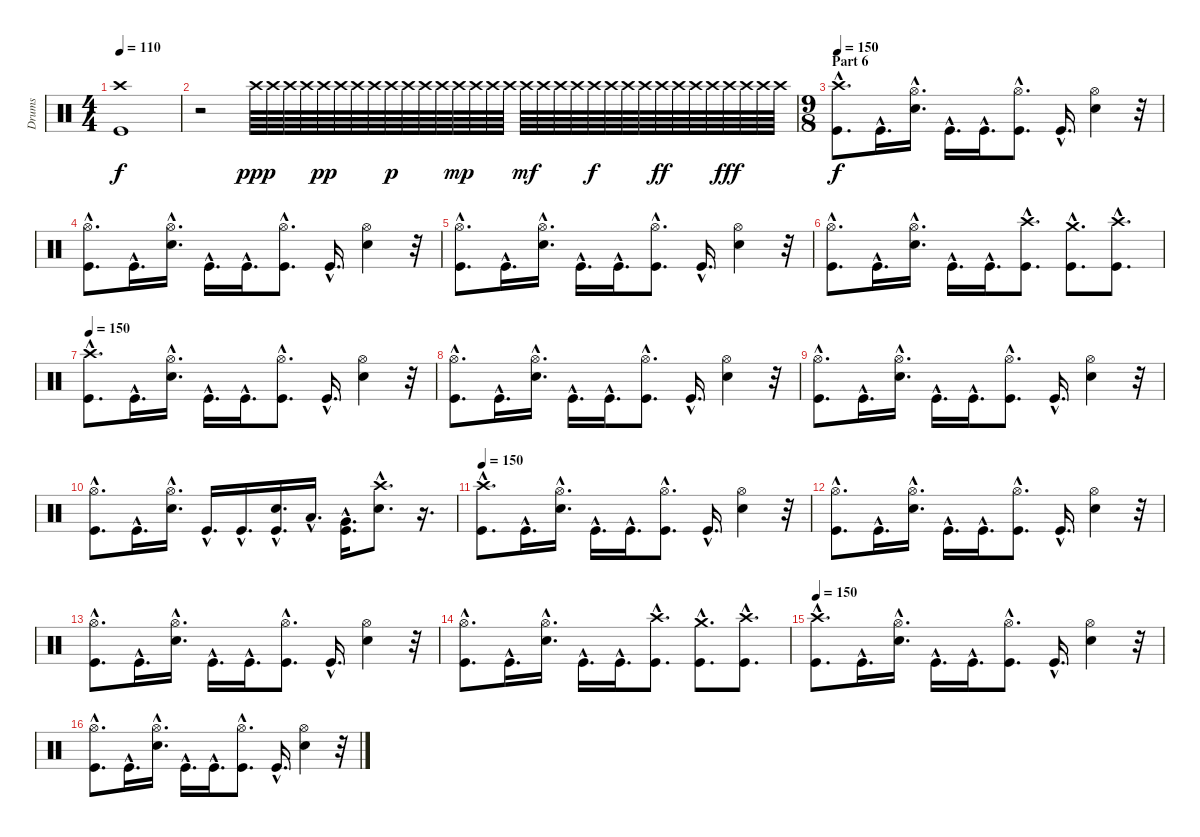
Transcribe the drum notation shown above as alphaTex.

\track ("Drums" "Drums") {instrument percussion}
\staff {score}
\articulation defaults
\ts (4 4)
\tempo 110
\clef neutral
\ks c
("Crash high (hit)" "Kick (hit)").1{dy f} |
r.2 "Crash high (hit)".64{dy ppp} "Crash high (hit)".64 "Crash high (hit)".64 "Crash high (hit)".64 "Crash high (hit)".64{dy pp} "Crash high (hit)".64 "Crash high (hit)".64 "Crash high (hit)".64 "Crash high (hit)".64{dy p} "Crash high (hit)".64 "Crash high (hit)".64 "Crash high (hit)".64 "Crash high (hit)".64{dy mp} "Crash high (hit)".64 "Crash high (hit)".64 "Crash high (hit)".64 "Crash high (hit)".64{dy mf} "Crash high (hit)".64 "Crash high (hit)".64 "Crash high (hit)".64 "Crash high (hit)".64{dy f} "Crash high (hit)".64 "Crash high (hit)".64 "Crash high (hit)".64 "Crash high (hit)".64{dy ff} "Crash high (hit)".64 "Crash high (hit)".64 "Crash high (hit)".64 "Crash high (hit)".64{dy fff} "Crash high (hit)".64 "Crash high (hit)".64 "Crash high (hit)".64 |
\ts (9 8)
\section ("" "Part 6")
\tempo 150
("Crash high (hit)"{hac} "Kick (hit)"{hac}).8{d dy f} "Kick (hit)"{hac}.16{d} ("Hi-Hat (open)"{hac} "Snare (hit) 2"{hac}).16{d} "Kick (hit)"{hac}.16{d} "Kick (hit)"{hac}.16{d} ("Hi-Hat (open)"{hac} "Kick (hit)"{hac}).8{d} "Kick (hit)"{hac}.16{d} ("Hi-Hat (open)" "Snare (hit) 2").4 r.32 |
("Hi-Hat (open)"{hac} "Kick (hit)"{hac}).8{d} "Kick (hit)"{hac}.16{d} ("Hi-Hat (open)"{hac} "Snare (hit) 2"{hac}).16{d} "Kick (hit)"{hac}.16{d} "Kick (hit)"{hac}.16{d} ("Hi-Hat (open)"{hac} "Kick (hit)"{hac}).8{d} "Kick (hit)"{hac}.16{d} ("Hi-Hat (open)" "Snare (hit) 2").4 r.32 |
("Hi-Hat (open)"{hac} "Kick (hit)"{hac}).8{d} "Kick (hit)"{hac}.16{d} ("Hi-Hat (open)"{hac} "Snare (hit) 2"{hac}).16{d} "Kick (hit)"{hac}.16{d} "Kick (hit)"{hac}.16{d} ("Hi-Hat (open)"{hac} "Kick (hit)"{hac}).8{d} "Kick (hit)"{hac}.16{d} ("Hi-Hat (open)" "Snare (hit) 2").4 r.32 |
("Hi-Hat (open)"{hac} "Kick (hit)"{hac}).8{d} "Kick (hit)"{hac}.16{d} ("Hi-Hat (open)"{hac} "Snare (hit) 2"{hac}).16{d} "Kick (hit)"{hac}.16{d} "Kick (hit)"{hac}.16{d} ("Crash high (hit)"{hac} "Kick (hit)"{hac}).8{d} ("Crash medium (hit)"{hac} "Kick (hit)"{hac}).8{d} ("Crash high (hit)"{hac} "Kick (hit)"{hac}).8{d} |
\tempo 150
("Crash high (hit)"{hac} "Kick (hit)"{hac}).8{d} "Kick (hit)"{hac}.16{d} ("Hi-Hat (open)"{hac} "Snare (hit) 2"{hac}).16{d} "Kick (hit)"{hac}.16{d} "Kick (hit)"{hac}.16{d} ("Hi-Hat (open)"{hac} "Kick (hit)"{hac}).8{d} "Kick (hit)"{hac}.16{d} ("Hi-Hat (open)" "Snare (hit) 2").4 r.32 |
("Hi-Hat (open)"{hac} "Kick (hit)"{hac}).8{d} "Kick (hit)"{hac}.16{d} ("Hi-Hat (open)"{hac} "Snare (hit) 2"{hac}).16{d} "Kick (hit)"{hac}.16{d} "Kick (hit)"{hac}.16{d} ("Hi-Hat (open)"{hac} "Kick (hit)"{hac}).8{d} "Kick (hit)"{hac}.16{d} ("Hi-Hat (open)" "Snare (hit) 2").4 r.32 |
("Hi-Hat (open)"{hac} "Kick (hit)"{hac}).8{d} "Kick (hit)"{hac}.16{d} ("Hi-Hat (open)"{hac} "Snare (hit) 2"{hac}).16{d} "Kick (hit)"{hac}.16{d} "Kick (hit)"{hac}.16{d} ("Hi-Hat (open)"{hac} "Kick (hit)"{hac}).8{d} "Kick (hit)"{hac}.16{d} ("Hi-Hat (open)" "Snare (hit) 2").4 r.32 |
("Hi-Hat (open)"{hac} "Kick (hit)"{hac}).8{d} "Kick (hit)"{hac}.16{d} ("Hi-Hat (open)"{hac} "Snare (hit) 2"{hac}).16{d} "Kick (hit)"{hac}.16{d} "Kick (hit)"{hac}.16{d} ("Snare (hit) 2"{hac} "Kick (hit)"{hac}).16{d} "Low Tom (hit)"{hac}.16{d} ("Very Low Tom (hit)"{hac} "Kick (hit)"{hac}).16{d} ("Crash high (hit)"{hac} "Snare (hit) 2"{hac}).8{d} r.16{d} |
\tempo 150
("Crash high (hit)"{hac} "Kick (hit)"{hac}).8{d} "Kick (hit)"{hac}.16{d} ("Hi-Hat (open)"{hac} "Snare (hit) 2"{hac}).16{d} "Kick (hit)"{hac}.16{d} "Kick (hit)"{hac}.16{d} ("Hi-Hat (open)"{hac} "Kick (hit)"{hac}).8{d} "Kick (hit)"{hac}.16{d} ("Hi-Hat (open)" "Snare (hit) 2").4 r.32 |
("Hi-Hat (open)"{hac} "Kick (hit)"{hac}).8{d} "Kick (hit)"{hac}.16{d} ("Hi-Hat (open)"{hac} "Snare (hit) 2"{hac}).16{d} "Kick (hit)"{hac}.16{d} "Kick (hit)"{hac}.16{d} ("Hi-Hat (open)"{hac} "Kick (hit)"{hac}).8{d} "Kick (hit)"{hac}.16{d} ("Hi-Hat (open)" "Snare (hit) 2").4 r.32 |
("Hi-Hat (open)"{hac} "Kick (hit)"{hac}).8{d} "Kick (hit)"{hac}.16{d} ("Hi-Hat (open)"{hac} "Snare (hit) 2"{hac}).16{d} "Kick (hit)"{hac}.16{d} "Kick (hit)"{hac}.16{d} ("Hi-Hat (open)"{hac} "Kick (hit)"{hac}).8{d} "Kick (hit)"{hac}.16{d} ("Hi-Hat (open)" "Snare (hit) 2").4 r.32 |
("Hi-Hat (open)"{hac} "Kick (hit)"{hac}).8{d} "Kick (hit)"{hac}.16{d} ("Hi-Hat (open)"{hac} "Snare (hit) 2"{hac}).16{d} "Kick (hit)"{hac}.16{d} "Kick (hit)"{hac}.16{d} ("Crash high (hit)"{hac} "Kick (hit)"{hac}).8{d} ("Crash medium (hit)"{hac} "Kick (hit)"{hac}).8{d} ("Crash high (hit)"{hac} "Kick (hit)"{hac}).8{d} |
\tempo 150
("Crash high (hit)"{hac} "Kick (hit)"{hac}).8{d} "Kick (hit)"{hac}.16{d} ("Hi-Hat (open)"{hac} "Snare (hit) 2"{hac}).16{d} "Kick (hit)"{hac}.16{d} "Kick (hit)"{hac}.16{d} ("Hi-Hat (open)"{hac} "Kick (hit)"{hac}).8{d} "Kick (hit)"{hac}.16{d} ("Hi-Hat (open)" "Snare (hit) 2").4 r.32 |
("Hi-Hat (open)"{hac} "Kick (hit)"{hac}).8{d} "Kick (hit)"{hac}.16{d} ("Hi-Hat (open)"{hac} "Snare (hit) 2"{hac}).16{d} "Kick (hit)"{hac}.16{d} "Kick (hit)"{hac}.16{d} ("Hi-Hat (open)"{hac} "Kick (hit)"{hac}).8{d} "Kick (hit)"{hac}.16{d} ("Hi-Hat (open)" "Snare (hit) 2").4 r.32
